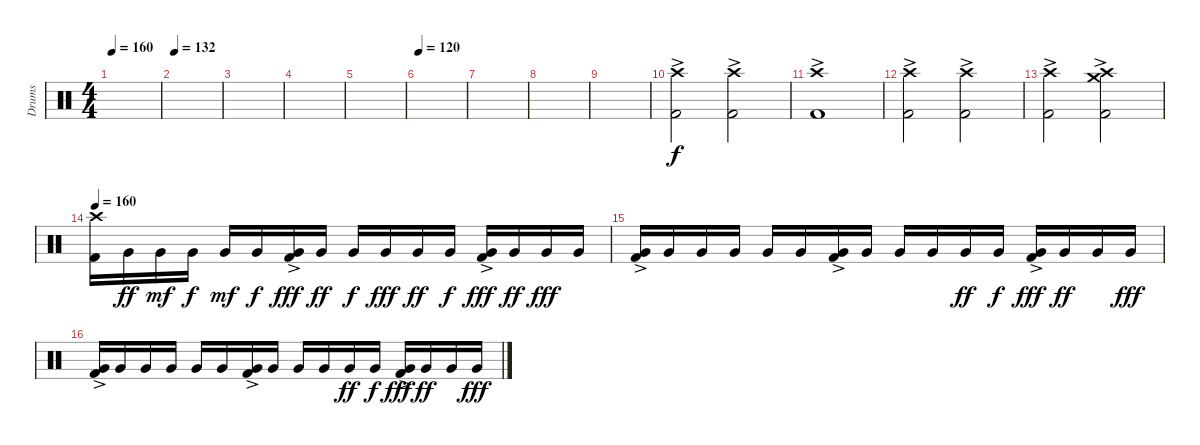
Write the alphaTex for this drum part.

\track ("Drums" "Drums") {instrument percussion}
\staff {score}
\articulation defaults
\ts (4 4)
\tempo 160
\clef neutral
\ks c
|
\tempo 132
|
|
|
|
\tempo 120
|
|
|
|
("Crash high (hit)" "Kick (hit) 2"{ac}).2 ("Crash high (hit)" "Kick (hit) 2"{ac}).2 |
("Crash high (hit)" "Kick (hit) 2"{ac}).1 |
("Crash high (hit)" "Kick (hit) 2"{ac}).2 ("Crash high (hit)" "Kick (hit) 2"{ac}).2 |
("Crash high (hit)" "Kick (hit) 2"{ac}).2 ("Crash high (hit)" "Crash medium (hit)" "Kick (hit) 2"{ac}).2 |
\tempo 180
\tempo 160
("Crash high (hit)" "Kick (hit) 2").16 "Very Low Tom (hit)".16{dy ff} "Very Low Tom (hit)".16{dy mf} "Very Low Tom (hit)".16{dy f} "Very Low Tom (hit)".16{dy mf} "Very Low Tom (hit)".16{dy f} ("Very Low Tom (hit)"{ac} "Kick (hit) 2"{ac}).16{dy fff} "Very Low Tom (hit)".16{dy ff} "Very Low Tom (hit)".16{dy f} "Very Low Tom (hit)".16{dy fff} "Very Low Tom (hit)".16{dy ff} "Very Low Tom (hit)".16{dy f} ("Very Low Tom (hit)"{ac} "Kick (hit) 2"{ac}).16{dy fff} "Very Low Tom (hit)".16{dy ff} "Very Low Tom (hit)".16{dy fff} "Very Low Tom (hit)".16 |
("Very Low Tom (hit)"{ac} "Kick (hit) 2"{ac}).16 "Very Low Tom (hit)".16 "Very Low Tom (hit)".16 "Very Low Tom (hit)".16 "Very Low Tom (hit)".16 "Very Low Tom (hit)".16 ("Very Low Tom (hit)"{ac} "Kick (hit) 2"{ac}).16 "Very Low Tom (hit)".16 "Very Low Tom (hit)".16 "Very Low Tom (hit)".16 "Very Low Tom (hit)".16{dy ff} "Very Low Tom (hit)".16{dy f} ("Very Low Tom (hit)"{ac} "Kick (hit) 2"{ac}).16{dy fff} "Very Low Tom (hit)".16{dy ff} "Very Low Tom (hit)".16 "Very Low Tom (hit)".16{dy fff} |
("Very Low Tom (hit)"{ac} "Kick (hit) 2"{ac}).16 "Very Low Tom (hit)".16 "Very Low Tom (hit)".16 "Very Low Tom (hit)".16 "Very Low Tom (hit)".16 "Very Low Tom (hit)".16 ("Very Low Tom (hit)"{ac} "Kick (hit) 2"{ac}).16 "Very Low Tom (hit)".16 "Very Low Tom (hit)".16 "Very Low Tom (hit)".16 "Very Low Tom (hit)".16{dy ff} "Very Low Tom (hit)".16{dy f} ("Very Low Tom (hit)"{ac} "Kick (hit) 2"{ac}).16{dy fff} "Very Low Tom (hit)".16{dy ff} "Very Low Tom (hit)".16 "Very Low Tom (hit)".16{dy fff}
